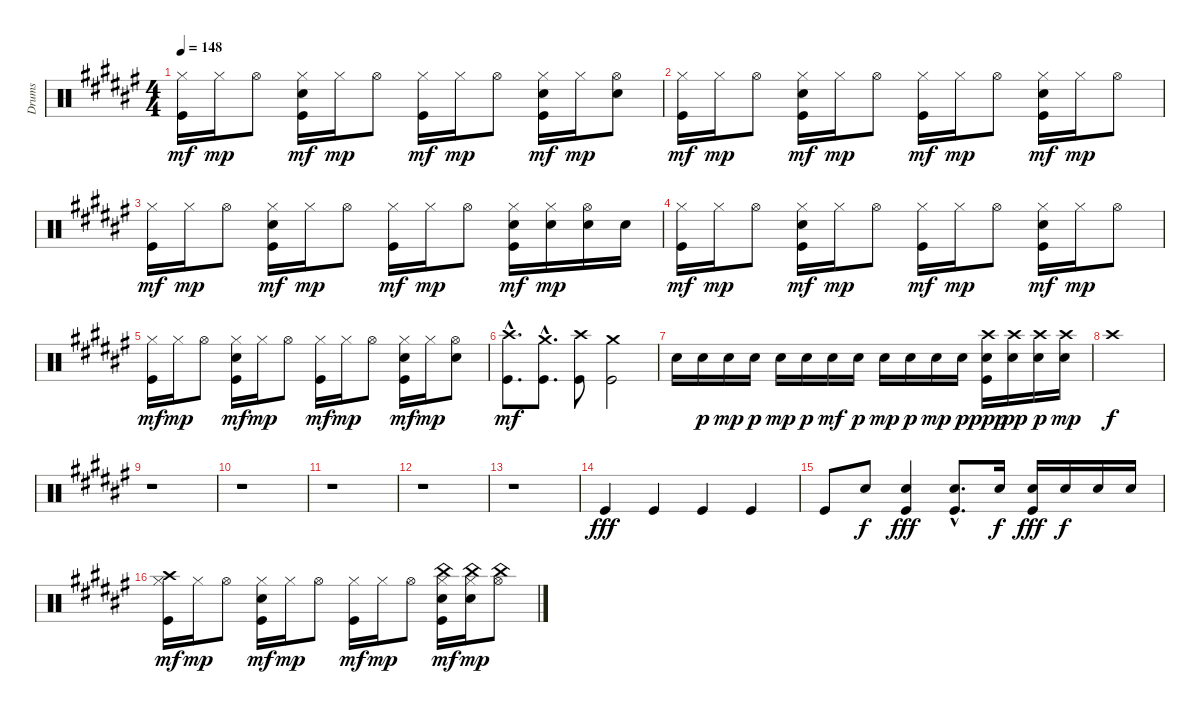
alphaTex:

\track ("Drums" "Drums") {instrument percussion}
\staff {score}
\articulation defaults
\ts (4 4)
\tempo 148
\clef neutral
\ks d#minor
("Kick (hit)" "Hi-Hat (closed)").16{dy mf} "Hi-Hat (closed)".16{dy mp} "Hi-Hat (open)".8 ("Electric Snare (hit)" "Kick (hit)" "Hi-Hat (closed)").16{dy mf} "Hi-Hat (closed)".16{dy mp} "Hi-Hat (open)".8 ("Kick (hit)" "Hi-Hat (closed)").16{dy mf} "Hi-Hat (closed)".16{dy mp} "Hi-Hat (open)".8 ("Electric Snare (hit)" "Kick (hit)" "Hi-Hat (closed)").16{dy mf} "Hi-Hat (closed)".16{dy mp} ("Snare (hit) 2" "Hi-Hat (open)").8 |
("Kick (hit)" "Hi-Hat (closed)").16{dy mf} "Hi-Hat (closed)".16{dy mp} "Hi-Hat (open)".8 ("Electric Snare (hit)" "Kick (hit)" "Hi-Hat (closed)").16{dy mf} "Hi-Hat (closed)".16{dy mp} "Hi-Hat (open)".8 ("Kick (hit)" "Hi-Hat (closed)").16{dy mf} "Hi-Hat (closed)".16{dy mp} "Hi-Hat (open)".8 ("Electric Snare (hit)" "Kick (hit)" "Hi-Hat (closed)").16{dy mf} "Hi-Hat (closed)".16{dy mp} "Hi-Hat (open)".8 |
("Kick (hit)" "Hi-Hat (closed)").16{dy mf} "Hi-Hat (closed)".16{dy mp} "Hi-Hat (open)".8 ("Electric Snare (hit)" "Kick (hit)" "Hi-Hat (closed)").16{dy mf} "Hi-Hat (closed)".16{dy mp} "Hi-Hat (open)".8 ("Kick (hit)" "Hi-Hat (closed)").16{dy mf} "Hi-Hat (closed)".16{dy mp} "Hi-Hat (open)".8 ("Snare (hit) 2" "Kick (hit)" "Hi-Hat (closed)").16{dy mf} ("Snare (hit) 2" "Hi-Hat (closed)").16{dy mp} ("Snare (hit) 2" "Hi-Hat (open)").16 "Snare (hit) 2".16 |
("Kick (hit)" "Hi-Hat (closed)").16{dy mf} "Hi-Hat (closed)".16{dy mp} "Hi-Hat (open)".8 ("Electric Snare (hit)" "Kick (hit)" "Hi-Hat (closed)").16{dy mf} "Hi-Hat (closed)".16{dy mp} "Hi-Hat (open)".8 ("Kick (hit)" "Hi-Hat (closed)").16{dy mf} "Hi-Hat (closed)".16{dy mp} "Hi-Hat (open)".8 ("Electric Snare (hit)" "Kick (hit)" "Hi-Hat (closed)").16{dy mf} "Hi-Hat (closed)".16{dy mp} "Hi-Hat (open)".8 |
("Kick (hit)" "Hi-Hat (closed)").16{dy mf} "Hi-Hat (closed)".16{dy mp} "Hi-Hat (open)".8 ("Electric Snare (hit)" "Kick (hit)" "Hi-Hat (closed)").16{dy mf} "Hi-Hat (closed)".16{dy mp} "Hi-Hat (open)".8 ("Kick (hit)" "Hi-Hat (closed)").16{dy mf} "Hi-Hat (closed)".16{dy mp} "Hi-Hat (open)".8 ("Electric Snare (hit)" "Kick (hit)" "Hi-Hat (closed)").16{dy mf} "Hi-Hat (closed)".16{dy mp} ("Snare (hit) 2" "Hi-Hat (open)").8 |
("Kick (hit)"{hac} "Crash high (hit)"{hac}).8{d dy mf} ("Kick (hit)"{hac} "Crash medium (hit)"{hac}).8{d} ("Kick (hit)" "Crash high (hit)").8 ("Kick (hit)" "Crash medium (hit)").2 |
"Snare (hit) 2".16 "Snare (hit) 2".16{dy p} "Snare (hit) 2".16{dy mp} "Snare (hit) 2".16{dy p} "Snare (hit) 2".16{dy mp} "Snare (hit) 2".16{dy p} "Snare (hit) 2".16{dy mf} "Snare (hit) 2".16{dy p} "Snare (hit) 2".16{dy mp} "Snare (hit) 2".16{dy p} "Snare (hit) 2".16{dy mp} "Snare (hit) 2".16{dy p} ("Kick (hit)" "Snare (hit) 2" "Crash high (hit)").16{dy ppp} ("Snare (hit) 2" "Crash high (hit)").16{dy pp} ("Snare (hit) 2" "Crash high (hit)").16{dy p} ("Snare (hit) 2" "Crash high (hit)").16{dy mp} |
"Crash high (hit)".1{dy f} |
r.1 |
r.1 |
r.1 |
r.1 |
r.1 |
"Kick (hit)".4{dy fff} "Kick (hit)".4 "Kick (hit)".4 "Kick (hit)".4 |
"Kick (hit)".8 "Electric Snare (hit)".8{dy f} ("Kick (hit)" "Electric Snare (hit)").4{dy fff} ("Kick (hit)"{hac} "Electric Snare (hit)"{hac}).8{d} "Electric Snare (hit)".16{dy f} ("Kick (hit)" "Snare (hit) 2").16{dy fff} "Snare (hit) 2".16{dy f} "Snare (hit) 2".16 "Snare (hit) 2".16 |
("Crash high (hit)" "Kick (hit)" "Hi-Hat (closed)").16{dy mf} "Hi-Hat (closed)".16{dy mp} "Hi-Hat (open)".8 ("Electric Snare (hit)" "Kick (hit)" "Hi-Hat (closed)").16{dy mf} "Hi-Hat (closed)".16{dy mp} "Hi-Hat (open)".8 ("Kick (hit)" "Hi-Hat (closed)").16{dy mf} "Hi-Hat (closed)".16{dy mp} "Hi-Hat (open)".8 ("Kick (hit)" "Hi-Hat (closed)" "China (hit)" "Snare (hit) 2").16{dy mf} ("China (hit)" "Hi-Hat (closed)" "Snare (hit) 2").16{dy mp} ("China (hit)" "Hi-Hat (open)").8
